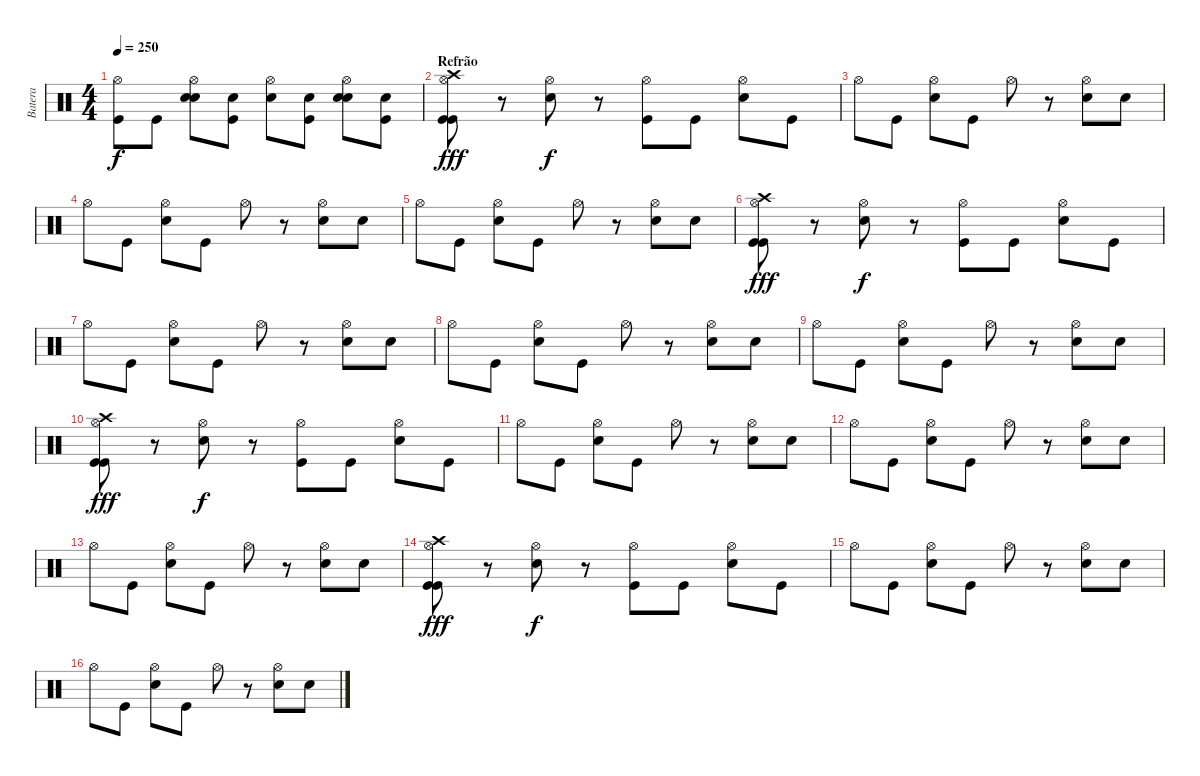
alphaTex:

\track ("Batera" "Batera") {instrument percussion}
\staff {score}
\articulation defaults
\ts (4 4)
\tempo 250
\clef neutral
\ks c
("Hi-Hat (open)" "Kick (hit)").8{dy f} "Kick (hit)".8 ("Hi-Hat (open)" "Electric Snare (hit)" "Electric Snare (hit)").8 ("Electric Snare (hit)" "Kick (hit)").8 ("Hi-Hat (open)" "Snare (hit) 2").8 ("Snare (hit) 2" "Kick (hit)").8 ("Hi-Hat (open)" "Electric Snare (hit)" "Electric Snare (hit)").8 ("Electric Snare (hit)" "Kick (hit)").8 |
\section ("" "Refrão")
("Hi-Hat (open)" "Crash high (hit)" "Kick (hit)" "Kick (hit)").8{dy fff} r.8 ("Hi-Hat (open)" "Electric Snare (hit)").8{dy f} r.8 ("Hi-Hat (open)" "Kick (hit)").8 "Kick (hit)".8 ("Hi-Hat (open)" "Electric Snare (hit)").8 "Kick (hit)".8 |
"Hi-Hat (open)".8 "Kick (hit)".8 ("Hi-Hat (open)" "Electric Snare (hit)").8 "Kick (hit)".8 "Hi-Hat (open)".8 r.8 ("Hi-Hat (open)" "Electric Snare (hit)").8 "Electric Snare (hit)".8 |
"Hi-Hat (open)".8 "Kick (hit)".8 ("Hi-Hat (open)" "Electric Snare (hit)").8 "Kick (hit)".8 "Hi-Hat (open)".8 r.8 ("Hi-Hat (open)" "Electric Snare (hit)").8 "Electric Snare (hit)".8 |
"Hi-Hat (open)".8 "Kick (hit)".8 ("Hi-Hat (open)" "Electric Snare (hit)").8 "Kick (hit)".8 "Hi-Hat (open)".8 r.8 ("Hi-Hat (open)" "Electric Snare (hit)").8 "Electric Snare (hit)".8 |
("Hi-Hat (open)" "Crash high (hit)" "Kick (hit)" "Kick (hit)").8{dy fff} r.8 ("Hi-Hat (open)" "Electric Snare (hit)").8{dy f} r.8 ("Hi-Hat (open)" "Kick (hit)").8 "Kick (hit)".8 ("Hi-Hat (open)" "Electric Snare (hit)").8 "Kick (hit)".8 |
"Hi-Hat (open)".8 "Kick (hit)".8 ("Hi-Hat (open)" "Electric Snare (hit)").8 "Kick (hit)".8 "Hi-Hat (open)".8 r.8 ("Hi-Hat (open)" "Electric Snare (hit)").8 "Electric Snare (hit)".8 |
"Hi-Hat (open)".8 "Kick (hit)".8 ("Hi-Hat (open)" "Electric Snare (hit)").8 "Kick (hit)".8 "Hi-Hat (open)".8 r.8 ("Hi-Hat (open)" "Electric Snare (hit)").8 "Electric Snare (hit)".8 |
"Hi-Hat (open)".8 "Kick (hit)".8 ("Hi-Hat (open)" "Electric Snare (hit)").8 "Kick (hit)".8 "Hi-Hat (open)".8 r.8 ("Hi-Hat (open)" "Electric Snare (hit)").8 "Electric Snare (hit)".8 |
("Hi-Hat (open)" "Crash high (hit)" "Kick (hit)" "Kick (hit)").8{dy fff} r.8 ("Hi-Hat (open)" "Electric Snare (hit)").8{dy f} r.8 ("Hi-Hat (open)" "Kick (hit)").8 "Kick (hit)".8 ("Hi-Hat (open)" "Electric Snare (hit)").8 "Kick (hit)".8 |
"Hi-Hat (open)".8 "Kick (hit)".8 ("Hi-Hat (open)" "Electric Snare (hit)").8 "Kick (hit)".8 "Hi-Hat (open)".8 r.8 ("Hi-Hat (open)" "Electric Snare (hit)").8 "Electric Snare (hit)".8 |
"Hi-Hat (open)".8 "Kick (hit)".8 ("Hi-Hat (open)" "Electric Snare (hit)").8 "Kick (hit)".8 "Hi-Hat (open)".8 r.8 ("Hi-Hat (open)" "Electric Snare (hit)").8 "Electric Snare (hit)".8 |
"Hi-Hat (open)".8 "Kick (hit)".8 ("Hi-Hat (open)" "Electric Snare (hit)").8 "Kick (hit)".8 "Hi-Hat (open)".8 r.8 ("Hi-Hat (open)" "Electric Snare (hit)").8 "Electric Snare (hit)".8 |
("Hi-Hat (open)" "Crash high (hit)" "Kick (hit)" "Kick (hit)").8{dy fff} r.8 ("Hi-Hat (open)" "Electric Snare (hit)").8{dy f} r.8 ("Hi-Hat (open)" "Kick (hit)").8 "Kick (hit)".8 ("Hi-Hat (open)" "Electric Snare (hit)").8 "Kick (hit)".8 |
"Hi-Hat (open)".8 "Kick (hit)".8 ("Hi-Hat (open)" "Electric Snare (hit)").8 "Kick (hit)".8 "Hi-Hat (open)".8 r.8 ("Hi-Hat (open)" "Electric Snare (hit)").8 "Electric Snare (hit)".8 |
"Hi-Hat (open)".8 "Kick (hit)".8 ("Hi-Hat (open)" "Electric Snare (hit)").8 "Kick (hit)".8 "Hi-Hat (open)".8 r.8 ("Hi-Hat (open)" "Electric Snare (hit)").8 "Electric Snare (hit)".8
